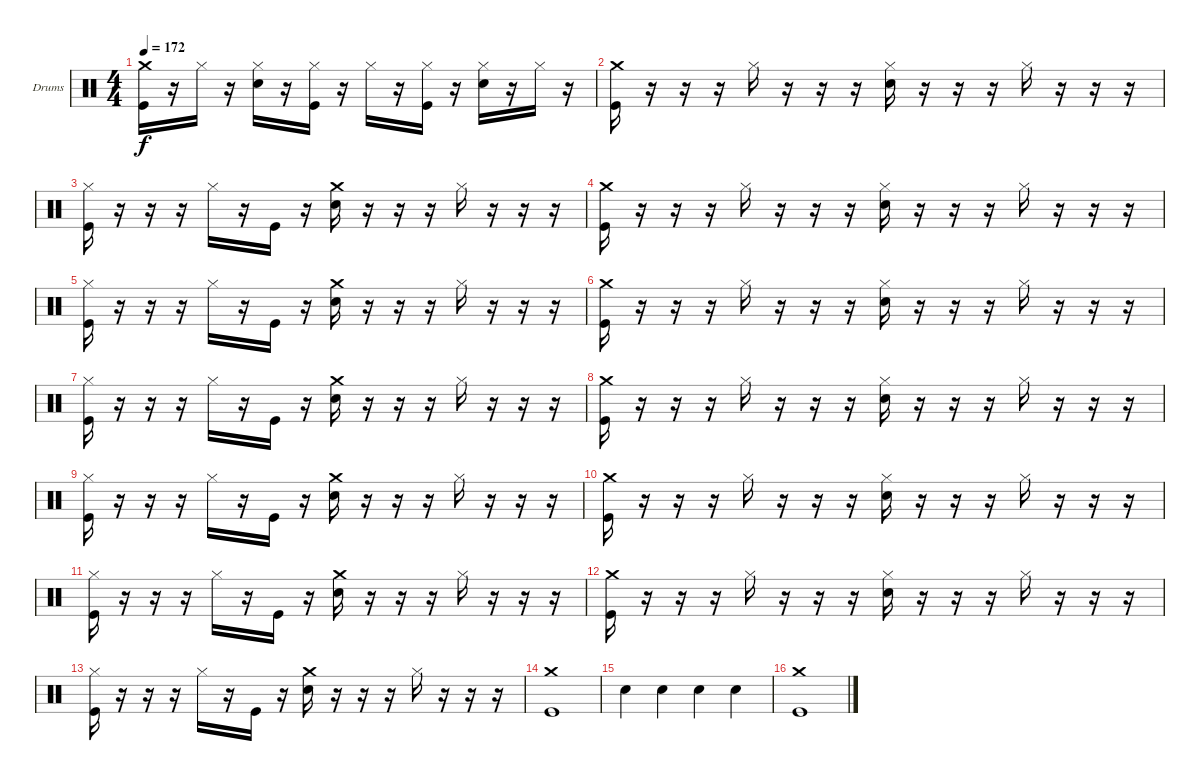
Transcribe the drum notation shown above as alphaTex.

\bracketExtendMode groupsimilarinstruments
\firstSystemTrackNameOrientation horizontal
\otherSystemsTrackNameOrientation horizontal
\track ("Drumkit" "Drums") {instrument percussion}
\staff {score}
\articulation defaults
\ts (4 4)
\tempo 172
\clef neutral
\ks c
("Kick (hit)" "Crash medium (hit)").16{dy f} r.16 "Hi-Hat (closed)".16 r.16 ("Snare (hit) 2" "Hi-Hat (closed)").16 r.16 ("Kick (hit)" "Hi-Hat (closed)").16 r.16 "Hi-Hat (closed)".16 r.16 ("Kick (hit)" "Hi-Hat (closed)").16 r.16 ("Snare (hit) 2" "Hi-Hat (closed)").16 r.16 "Hi-Hat (closed)".16 r.16 |
("Kick (hit)" "Crash medium (hit)").16 r.16 r.16 r.16 "Hi-Hat (closed)".16 r.16 r.16 r.16 ("Snare (hit) 2" "Hi-Hat (closed)").16 r.16 r.16 r.16 "Hi-Hat (closed)".16 r.16 r.16 r.16 |
("Kick (hit)" "Hi-Hat (closed)").16 r.16 r.16 r.16 "Hi-Hat (closed)".16 r.16 "Kick (hit)".16 r.16 ("Snare (hit) 2" "Crash medium (hit)").16 r.16 r.16 r.16 "Hi-Hat (closed)".16 r.16 r.16 r.16 |
("Kick (hit)" "Crash medium (hit)").16 r.16 r.16 r.16 "Hi-Hat (closed)".16 r.16 r.16 r.16 ("Snare (hit) 2" "Hi-Hat (closed)").16 r.16 r.16 r.16 "Hi-Hat (closed)".16 r.16 r.16 r.16 |
("Kick (hit)" "Hi-Hat (closed)").16 r.16 r.16 r.16 "Hi-Hat (closed)".16 r.16 "Kick (hit)".16 r.16 ("Snare (hit) 2" "Crash medium (hit)").16 r.16 r.16 r.16 "Hi-Hat (closed)".16 r.16 r.16 r.16 |
("Kick (hit)" "Crash medium (hit)").16 r.16 r.16 r.16 "Hi-Hat (closed)".16 r.16 r.16 r.16 ("Snare (hit) 2" "Hi-Hat (closed)").16 r.16 r.16 r.16 "Hi-Hat (closed)".16 r.16 r.16 r.16 |
("Kick (hit)" "Hi-Hat (closed)").16 r.16 r.16 r.16 "Hi-Hat (closed)".16 r.16 "Kick (hit)".16 r.16 ("Snare (hit) 2" "Crash medium (hit)").16 r.16 r.16 r.16 "Hi-Hat (closed)".16 r.16 r.16 r.16 |
("Kick (hit)" "Crash medium (hit)").16 r.16 r.16 r.16 "Hi-Hat (closed)".16 r.16 r.16 r.16 ("Snare (hit) 2" "Hi-Hat (closed)").16 r.16 r.16 r.16 "Hi-Hat (closed)".16 r.16 r.16 r.16 |
("Kick (hit)" "Hi-Hat (closed)").16 r.16 r.16 r.16 "Hi-Hat (closed)".16 r.16 "Kick (hit)".16 r.16 ("Snare (hit) 2" "Crash medium (hit)").16 r.16 r.16 r.16 "Hi-Hat (closed)".16 r.16 r.16 r.16 |
("Kick (hit)" "Crash medium (hit)").16 r.16 r.16 r.16 "Hi-Hat (closed)".16 r.16 r.16 r.16 ("Snare (hit) 2" "Hi-Hat (closed)").16 r.16 r.16 r.16 "Hi-Hat (closed)".16 r.16 r.16 r.16 |
("Kick (hit)" "Hi-Hat (closed)").16 r.16 r.16 r.16 "Hi-Hat (closed)".16 r.16 "Kick (hit)".16 r.16 ("Snare (hit) 2" "Crash medium (hit)").16 r.16 r.16 r.16 "Hi-Hat (closed)".16 r.16 r.16 r.16 |
("Kick (hit)" "Crash medium (hit)").16 r.16 r.16 r.16 "Hi-Hat (closed)".16 r.16 r.16 r.16 ("Snare (hit) 2" "Hi-Hat (closed)").16 r.16 r.16 r.16 "Hi-Hat (closed)".16 r.16 r.16 r.16 |
("Kick (hit)" "Hi-Hat (closed)").16 r.16 r.16 r.16 "Hi-Hat (closed)".16 r.16 "Kick (hit)".16 r.16 ("Snare (hit) 2" "Crash medium (hit)").16 r.16 r.16 r.16 "Hi-Hat (closed)".16 r.16 r.16 r.16 |
("Kick (hit)" "Crash medium (hit)").1 |
"Snare (hit) 2".4 "Snare (hit) 2".4 "Snare (hit) 2".4 "Snare (hit) 2".4 |
("Kick (hit)" "Crash medium (hit)").1
